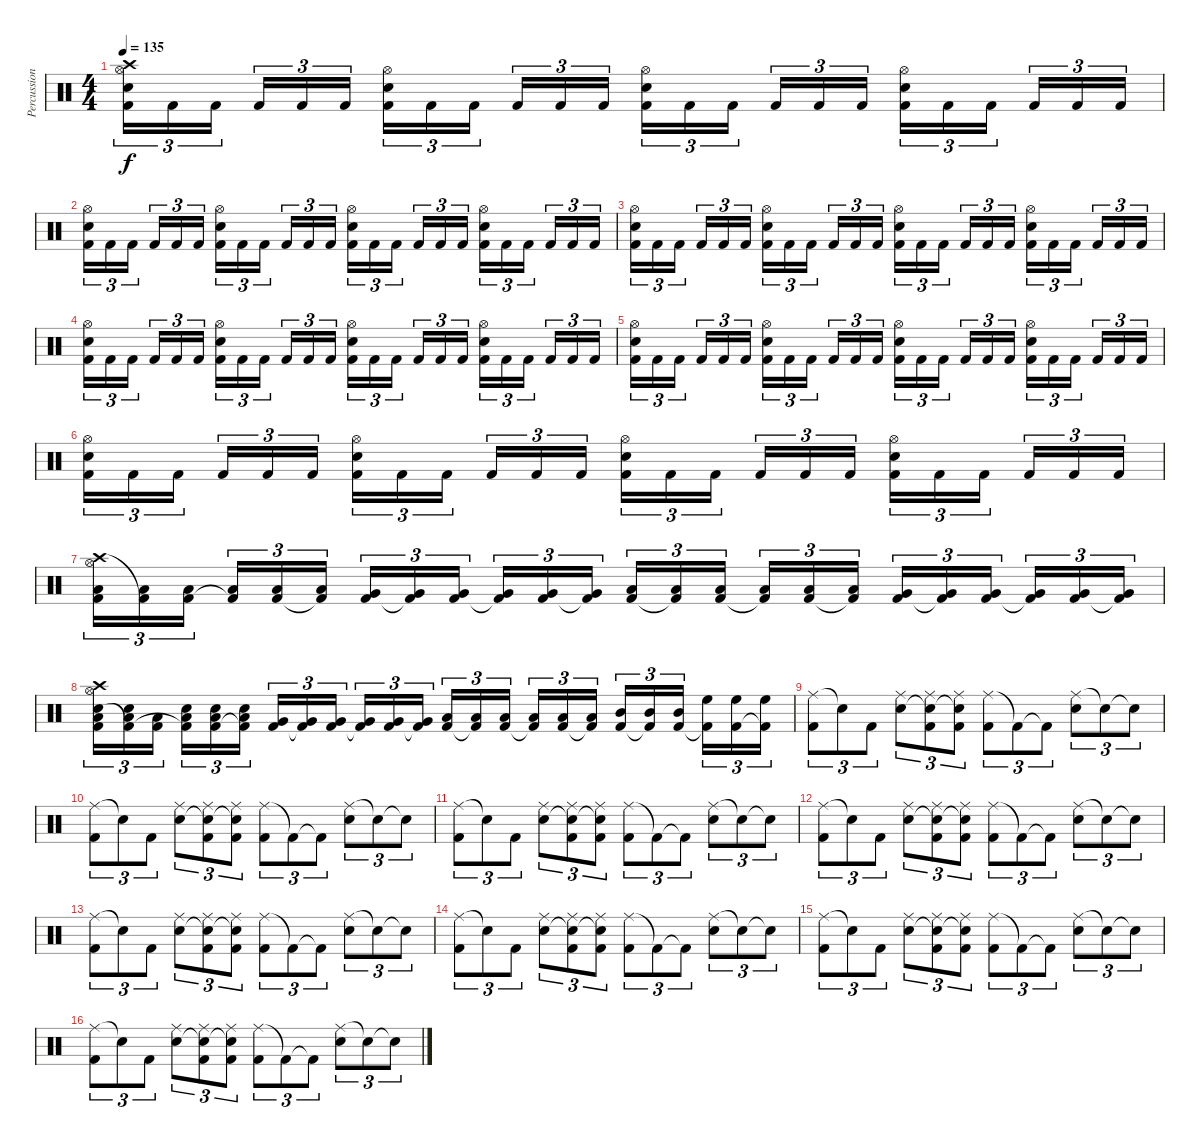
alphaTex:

\track ("Percussions" "Percussion") {instrument percussion}
\staff {score}
\articulation defaults
\ts (4 4)
\tempo 135
\clef neutral
\ks c
("Hi-Hat (open)" "Snare (hit) 2" "Crash high (hit)" "Kick (hit) 2").16{tu (3 2) dy f} "Kick (hit) 2".16{tu (3 2)} "Kick (hit) 2".16{tu (3 2)} "Kick (hit) 2".16{tu (3 2)} "Kick (hit) 2".16{tu (3 2)} "Kick (hit) 2".16{tu (3 2)} ("Hi-Hat (open)" "Snare (hit) 2" "Kick (hit) 2").16{tu (3 2)} "Kick (hit) 2".16{tu (3 2)} "Kick (hit) 2".16{tu (3 2)} "Kick (hit) 2".16{tu (3 2)} "Kick (hit) 2".16{tu (3 2)} "Kick (hit) 2".16{tu (3 2)} ("Hi-Hat (open)" "Snare (hit) 2" "Kick (hit) 2").16{tu (3 2)} "Kick (hit) 2".16{tu (3 2)} "Kick (hit) 2".16{tu (3 2)} "Kick (hit) 2".16{tu (3 2)} "Kick (hit) 2".16{tu (3 2)} "Kick (hit) 2".16{tu (3 2)} ("Hi-Hat (open)" "Snare (hit) 2" "Kick (hit) 2").16{tu (3 2)} "Kick (hit) 2".16{tu (3 2)} "Kick (hit) 2".16{tu (3 2)} "Kick (hit) 2".16{tu (3 2)} "Kick (hit) 2".16{tu (3 2)} "Kick (hit) 2".16{tu (3 2)} |
("Hi-Hat (open)" "Snare (hit) 2" "Kick (hit) 2").16{tu (3 2)} "Kick (hit) 2".16{tu (3 2)} "Kick (hit) 2".16{tu (3 2)} "Kick (hit) 2".16{tu (3 2)} "Kick (hit) 2".16{tu (3 2)} "Kick (hit) 2".16{tu (3 2)} ("Hi-Hat (open)" "Snare (hit) 2" "Kick (hit) 2").16{tu (3 2)} "Kick (hit) 2".16{tu (3 2)} "Kick (hit) 2".16{tu (3 2)} "Kick (hit) 2".16{tu (3 2)} "Kick (hit) 2".16{tu (3 2)} "Kick (hit) 2".16{tu (3 2)} ("Hi-Hat (open)" "Snare (hit) 2" "Kick (hit) 2").16{tu (3 2)} "Kick (hit) 2".16{tu (3 2)} "Kick (hit) 2".16{tu (3 2)} "Kick (hit) 2".16{tu (3 2)} "Kick (hit) 2".16{tu (3 2)} "Kick (hit) 2".16{tu (3 2)} ("Hi-Hat (open)" "Snare (hit) 2" "Kick (hit) 2").16{tu (3 2)} "Kick (hit) 2".16{tu (3 2)} "Kick (hit) 2".16{tu (3 2)} "Kick (hit) 2".16{tu (3 2)} "Kick (hit) 2".16{tu (3 2)} "Kick (hit) 2".16{tu (3 2)} |
("Hi-Hat (open)" "Snare (hit) 2" "Kick (hit) 2").16{tu (3 2)} "Kick (hit) 2".16{tu (3 2)} "Kick (hit) 2".16{tu (3 2)} "Kick (hit) 2".16{tu (3 2)} "Kick (hit) 2".16{tu (3 2)} "Kick (hit) 2".16{tu (3 2)} ("Hi-Hat (open)" "Snare (hit) 2" "Kick (hit) 2").16{tu (3 2)} "Kick (hit) 2".16{tu (3 2)} "Kick (hit) 2".16{tu (3 2)} "Kick (hit) 2".16{tu (3 2)} "Kick (hit) 2".16{tu (3 2)} "Kick (hit) 2".16{tu (3 2)} ("Hi-Hat (open)" "Snare (hit) 2" "Kick (hit) 2").16{tu (3 2)} "Kick (hit) 2".16{tu (3 2)} "Kick (hit) 2".16{tu (3 2)} "Kick (hit) 2".16{tu (3 2)} "Kick (hit) 2".16{tu (3 2)} "Kick (hit) 2".16{tu (3 2)} ("Hi-Hat (open)" "Snare (hit) 2" "Kick (hit) 2").16{tu (3 2)} "Kick (hit) 2".16{tu (3 2)} "Kick (hit) 2".16{tu (3 2)} "Kick (hit) 2".16{tu (3 2)} "Kick (hit) 2".16{tu (3 2)} "Kick (hit) 2".16{tu (3 2)} |
("Hi-Hat (open)" "Snare (hit) 2" "Kick (hit) 2").16{tu (3 2)} "Kick (hit) 2".16{tu (3 2)} "Kick (hit) 2".16{tu (3 2)} "Kick (hit) 2".16{tu (3 2)} "Kick (hit) 2".16{tu (3 2)} "Kick (hit) 2".16{tu (3 2)} ("Hi-Hat (open)" "Snare (hit) 2" "Kick (hit) 2").16{tu (3 2)} "Kick (hit) 2".16{tu (3 2)} "Kick (hit) 2".16{tu (3 2)} "Kick (hit) 2".16{tu (3 2)} "Kick (hit) 2".16{tu (3 2)} "Kick (hit) 2".16{tu (3 2)} ("Hi-Hat (open)" "Snare (hit) 2" "Kick (hit) 2").16{tu (3 2)} "Kick (hit) 2".16{tu (3 2)} "Kick (hit) 2".16{tu (3 2)} "Kick (hit) 2".16{tu (3 2)} "Kick (hit) 2".16{tu (3 2)} "Kick (hit) 2".16{tu (3 2)} ("Hi-Hat (open)" "Snare (hit) 2" "Kick (hit) 2").16{tu (3 2)} "Kick (hit) 2".16{tu (3 2)} "Kick (hit) 2".16{tu (3 2)} "Kick (hit) 2".16{tu (3 2)} "Kick (hit) 2".16{tu (3 2)} "Kick (hit) 2".16{tu (3 2)} |
("Hi-Hat (open)" "Snare (hit) 2" "Kick (hit) 2").16{tu (3 2)} "Kick (hit) 2".16{tu (3 2)} "Kick (hit) 2".16{tu (3 2)} "Kick (hit) 2".16{tu (3 2)} "Kick (hit) 2".16{tu (3 2)} "Kick (hit) 2".16{tu (3 2)} ("Hi-Hat (open)" "Snare (hit) 2" "Kick (hit) 2").16{tu (3 2)} "Kick (hit) 2".16{tu (3 2)} "Kick (hit) 2".16{tu (3 2)} "Kick (hit) 2".16{tu (3 2)} "Kick (hit) 2".16{tu (3 2)} "Kick (hit) 2".16{tu (3 2)} ("Hi-Hat (open)" "Snare (hit) 2" "Kick (hit) 2").16{tu (3 2)} "Kick (hit) 2".16{tu (3 2)} "Kick (hit) 2".16{tu (3 2)} "Kick (hit) 2".16{tu (3 2)} "Kick (hit) 2".16{tu (3 2)} "Kick (hit) 2".16{tu (3 2)} ("Hi-Hat (open)" "Snare (hit) 2" "Kick (hit) 2").16{tu (3 2)} "Kick (hit) 2".16{tu (3 2)} "Kick (hit) 2".16{tu (3 2)} "Kick (hit) 2".16{tu (3 2)} "Kick (hit) 2".16{tu (3 2)} "Kick (hit) 2".16{tu (3 2)} |
("Hi-Hat (open)" "Snare (hit) 2" "Kick (hit) 2").16{tu (3 2)} "Kick (hit) 2".16{tu (3 2)} "Kick (hit) 2".16{tu (3 2)} "Kick (hit) 2".16{tu (3 2)} "Kick (hit) 2".16{tu (3 2)} "Kick (hit) 2".16{tu (3 2)} ("Hi-Hat (open)" "Snare (hit) 2" "Kick (hit) 2").16{tu (3 2)} "Kick (hit) 2".16{tu (3 2)} "Kick (hit) 2".16{tu (3 2)} "Kick (hit) 2".16{tu (3 2)} "Kick (hit) 2".16{tu (3 2)} "Kick (hit) 2".16{tu (3 2)} ("Hi-Hat (open)" "Snare (hit) 2" "Kick (hit) 2").16{tu (3 2)} "Kick (hit) 2".16{tu (3 2)} "Kick (hit) 2".16{tu (3 2)} "Kick (hit) 2".16{tu (3 2)} "Kick (hit) 2".16{tu (3 2)} "Kick (hit) 2".16{tu (3 2)} ("Hi-Hat (open)" "Snare (hit) 2" "Kick (hit) 2").16{tu (3 2)} "Kick (hit) 2".16{tu (3 2)} "Kick (hit) 2".16{tu (3 2)} "Kick (hit) 2".16{tu (3 2)} "Kick (hit) 2".16{tu (3 2)} "Kick (hit) 2".16{tu (3 2)} |
("Hi-Hat (open)" "Crash high (hit)" "Low Floor Tom (hit)" "Kick (hit) 2").16{tu (3 2)} ("Low Floor Tom (hit)" "Kick (hit) 2"{t}).16{tu (3 2)} ("Low Floor Tom (hit)" "Kick (hit) 2").16{tu (3 2)} ("Low Floor Tom (hit)" "Kick (hit) 2"{t}).16{tu (3 2)} ("Low Floor Tom (hit)" "Kick (hit) 2").16{tu (3 2)} ("Low Floor Tom (hit)" "Kick (hit) 2"{t}).16{tu (3 2)} ("Very Low Tom (hit)" "Kick (hit) 2").16{tu (3 2)} ("Very Low Tom (hit)" "Kick (hit) 2"{t}).16{tu (3 2)} ("Very Low Tom (hit)" "Kick (hit) 2").16{tu (3 2)} ("Very Low Tom (hit)" "Kick (hit) 2"{t}).16{tu (3 2)} ("Very Low Tom (hit)" "Kick (hit) 2").16{tu (3 2)} ("Very Low Tom (hit)" "Kick (hit) 2"{t}).16{tu (3 2)} ("Low Tom (hit)" "Kick (hit) 2").16{tu (3 2)} ("Low Tom (hit)" "Kick (hit) 2"{t}).16{tu (3 2)} ("Low Tom (hit)" "Kick (hit) 2").16{tu (3 2)} ("Low Tom (hit)" "Kick (hit) 2"{t}).16{tu (3 2)} ("Low Tom (hit)" "Kick (hit) 2").16{tu (3 2)} ("Low Tom (hit)" "Kick (hit) 2"{t}).16{tu (3 2)} ("Very Low Tom (hit)" "Kick (hit) 2").16{tu (3 2)} ("Very Low Tom (hit)" "Kick (hit) 2"{t}).16{tu (3 2)} ("Very Low Tom (hit)" "Kick (hit) 2").16{tu (3 2)} ("Very Low Tom (hit)" "Kick (hit) 2"{t}).16{tu (3 2)} ("Very Low Tom (hit)" "Kick (hit) 2").16{tu (3 2)} ("Very Low Tom (hit)" "Kick (hit) 2"{t}).16{tu (3 2)} |
("Hi-Hat (open)" "Crash high (hit)" "Snare (hit) 2" "Low Floor Tom (hit)" "Kick (hit) 2").16{tu (3 2)} ("Snare (hit) 2" "Low Floor Tom (hit)" "Kick (hit) 2"{t}).16{tu (3 2)} ("Low Floor Tom (hit)" "Kick (hit) 2").16{tu (3 2)} ("Snare (hit) 2" "Low Floor Tom (hit)" "Kick (hit) 2"{t}).16{tu (3 2)} ("Snare (hit) 2" "Low Floor Tom (hit)" "Kick (hit) 2").16{tu (3 2)} ("Snare (hit) 2" "Low Floor Tom (hit)" "Kick (hit) 2"{t}).16{tu (3 2)} ("Very Low Tom (hit)" "Kick (hit) 2").16{tu (3 2)} ("Very Low Tom (hit)" "Kick (hit) 2"{t}).16{tu (3 2)} ("Very Low Tom (hit)" "Kick (hit) 2").16{tu (3 2)} ("Very Low Tom (hit)" "Kick (hit) 2"{t}).16{tu (3 2)} ("Very Low Tom (hit)" "Kick (hit) 2").16{tu (3 2)} ("Very Low Tom (hit)" "Kick (hit) 2"{t}).16{tu (3 2)} ("Low Tom (hit)" "Kick (hit) 2").16{tu (3 2)} ("Low Tom (hit)" "Kick (hit) 2"{t}).16{tu (3 2)} ("Low Tom (hit)" "Kick (hit) 2").16{tu (3 2)} ("Low Tom (hit)" "Kick (hit) 2"{t}).16{tu (3 2)} ("Low Tom (hit)" "Kick (hit) 2").16{tu (3 2)} ("Low Tom (hit)" "Kick (hit) 2"{t}).16{tu (3 2)} ("Mid Tom (hit)" "Kick (hit) 2").16{tu (3 2)} ("Mid Tom (hit)" "Kick (hit) 2"{t}).16{tu (3 2)} ("Mid Tom (hit)" "Kick (hit) 2").16{tu (3 2)} ("High Floor Tom (hit)" "Kick (hit) 2"{t}).16{tu (3 2)} ("High Floor Tom (hit)" "Kick (hit) 2").16{tu (3 2)} ("High Floor Tom (hit)" "Kick (hit) 2"{t}).16{tu (3 2)} |
("Ride (middle)" "Kick (hit) 2").8{tu (3 2)} "Snare (hit)"{t}.8{tu (3 2)} "Kick (hit) 2".8{tu (3 2)} ("Ride (middle)" "Snare (hit) 2").8{tu (3 2)} ("Ride (middle)" "Snare (hit)"{t} "Kick (hit) 2").8{tu (3 2)} ("Ride (middle)" "Snare (hit)"{t} "Kick (hit) 2").8{tu (3 2)} ("Ride (middle)" "Kick (hit) 2").8{tu (3 2)} "Kick (hit) 2"{t}.8{tu (3 2)} "Kick (hit) 2"{t}.8{tu (3 2)} ("Ride (middle)" "Snare (hit) 2").8{tu (3 2)} "Snare (hit)"{t}.8{tu (3 2)} "Snare (hit)"{t}.8{tu (3 2)} |
("Ride (middle)" "Kick (hit) 2").8{tu (3 2)} "Snare (hit)"{t}.8{tu (3 2)} "Kick (hit) 2".8{tu (3 2)} ("Ride (middle)" "Snare (hit) 2").8{tu (3 2)} ("Ride (middle)" "Snare (hit)"{t} "Kick (hit) 2").8{tu (3 2)} ("Ride (middle)" "Snare (hit)"{t} "Kick (hit) 2").8{tu (3 2)} ("Ride (middle)" "Kick (hit) 2").8{tu (3 2)} "Kick (hit) 2"{t}.8{tu (3 2)} "Kick (hit) 2"{t}.8{tu (3 2)} ("Ride (middle)" "Snare (hit) 2").8{tu (3 2)} "Snare (hit)"{t}.8{tu (3 2)} "Snare (hit)"{t}.8{tu (3 2)} |
("Ride (middle)" "Kick (hit) 2").8{tu (3 2)} "Snare (hit)"{t}.8{tu (3 2)} "Kick (hit) 2".8{tu (3 2)} ("Ride (middle)" "Snare (hit) 2").8{tu (3 2)} ("Ride (middle)" "Snare (hit)"{t} "Kick (hit) 2").8{tu (3 2)} ("Ride (middle)" "Snare (hit)"{t} "Kick (hit) 2").8{tu (3 2)} ("Ride (middle)" "Kick (hit) 2").8{tu (3 2)} "Kick (hit) 2"{t}.8{tu (3 2)} "Kick (hit) 2"{t}.8{tu (3 2)} ("Ride (middle)" "Snare (hit) 2").8{tu (3 2)} "Snare (hit)"{t}.8{tu (3 2)} "Snare (hit)"{t}.8{tu (3 2)} |
("Ride (middle)" "Kick (hit) 2").8{tu (3 2)} "Snare (hit)"{t}.8{tu (3 2)} "Kick (hit) 2".8{tu (3 2)} ("Ride (middle)" "Snare (hit) 2").8{tu (3 2)} ("Ride (middle)" "Snare (hit)"{t} "Kick (hit) 2").8{tu (3 2)} ("Ride (middle)" "Snare (hit)"{t} "Kick (hit) 2").8{tu (3 2)} ("Ride (middle)" "Kick (hit) 2").8{tu (3 2)} "Kick (hit) 2"{t}.8{tu (3 2)} "Kick (hit) 2"{t}.8{tu (3 2)} ("Ride (middle)" "Snare (hit) 2").8{tu (3 2)} "Snare (hit)"{t}.8{tu (3 2)} "Snare (hit)"{t}.8{tu (3 2)} |
("Ride (middle)" "Kick (hit) 2").8{tu (3 2)} "Snare (hit)"{t}.8{tu (3 2)} "Kick (hit) 2".8{tu (3 2)} ("Ride (middle)" "Snare (hit) 2").8{tu (3 2)} ("Ride (middle)" "Snare (hit)"{t} "Kick (hit) 2").8{tu (3 2)} ("Ride (middle)" "Snare (hit)"{t} "Kick (hit) 2").8{tu (3 2)} ("Ride (middle)" "Kick (hit) 2").8{tu (3 2)} "Kick (hit) 2"{t}.8{tu (3 2)} "Kick (hit) 2"{t}.8{tu (3 2)} ("Ride (middle)" "Snare (hit) 2").8{tu (3 2)} "Snare (hit)"{t}.8{tu (3 2)} "Snare (hit)"{t}.8{tu (3 2)} |
("Ride (middle)" "Kick (hit) 2").8{tu (3 2)} "Snare (hit)"{t}.8{tu (3 2)} "Kick (hit) 2".8{tu (3 2)} ("Ride (middle)" "Snare (hit) 2").8{tu (3 2)} ("Ride (middle)" "Snare (hit)"{t} "Kick (hit) 2").8{tu (3 2)} ("Ride (middle)" "Snare (hit)"{t} "Kick (hit) 2").8{tu (3 2)} ("Ride (middle)" "Kick (hit) 2").8{tu (3 2)} "Kick (hit) 2"{t}.8{tu (3 2)} "Kick (hit) 2"{t}.8{tu (3 2)} ("Ride (middle)" "Snare (hit) 2").8{tu (3 2)} "Snare (hit)"{t}.8{tu (3 2)} "Snare (hit)"{t}.8{tu (3 2)} |
("Ride (middle)" "Kick (hit) 2").8{tu (3 2)} "Snare (hit)"{t}.8{tu (3 2)} "Kick (hit) 2".8{tu (3 2)} ("Ride (middle)" "Snare (hit) 2").8{tu (3 2)} ("Ride (middle)" "Snare (hit)"{t} "Kick (hit) 2").8{tu (3 2)} ("Ride (middle)" "Snare (hit)"{t} "Kick (hit) 2").8{tu (3 2)} ("Ride (middle)" "Kick (hit) 2").8{tu (3 2)} "Kick (hit) 2"{t}.8{tu (3 2)} "Kick (hit) 2"{t}.8{tu (3 2)} ("Ride (middle)" "Snare (hit) 2").8{tu (3 2)} "Snare (hit)"{t}.8{tu (3 2)} "Snare (hit)"{t}.8{tu (3 2)} |
("Ride (middle)" "Kick (hit) 2").8{tu (3 2)} "Snare (hit)"{t}.8{tu (3 2)} "Kick (hit) 2".8{tu (3 2)} ("Ride (middle)" "Snare (hit) 2").8{tu (3 2)} ("Ride (middle)" "Snare (hit)"{t} "Kick (hit) 2").8{tu (3 2)} ("Ride (middle)" "Snare (hit)"{t} "Kick (hit) 2").8{tu (3 2)} ("Ride (middle)" "Kick (hit) 2").8{tu (3 2)} "Kick (hit) 2"{t}.8{tu (3 2)} "Kick (hit) 2"{t}.8{tu (3 2)} ("Ride (middle)" "Snare (hit) 2").8{tu (3 2)} "Snare (hit)"{t}.8{tu (3 2)} "Snare (hit)"{t}.8{tu (3 2)}
